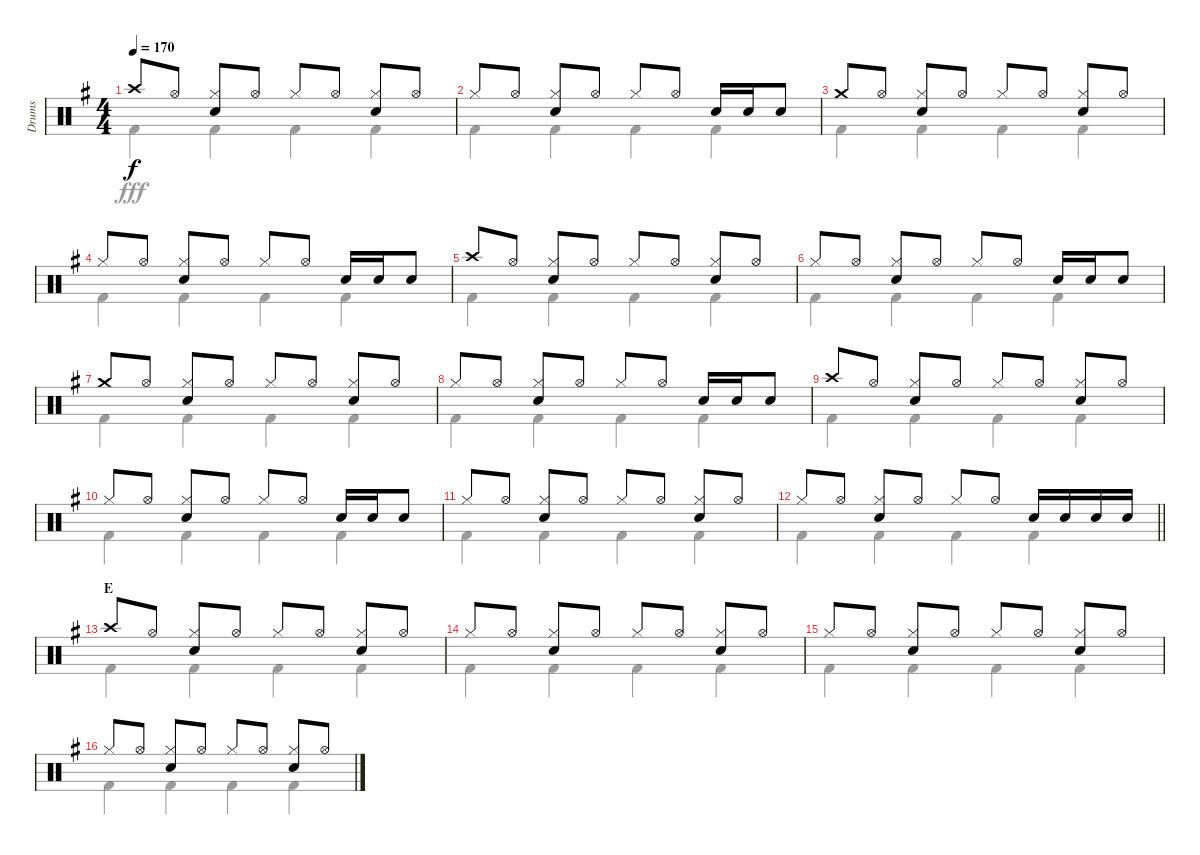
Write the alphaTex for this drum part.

\track ("Drums" "Drums") {instrument percussion}
\staff {score}
\articulation defaults
\voice
\ts (4 4)
\tempo 170
\clef neutral
\ks g "Crash high (hit)".8{dy f} "Hi-Hat (open)".8
("Hi-Hat (closed)" "Snare (hit) 2").8 "Hi-Hat (open)".8 "Hi-Hat (closed)".8 "Hi-Hat (open)".8 ("Hi-Hat (closed)" "Snare (hit) 2").8 "Hi-Hat (open)".8 |
"Hi-Hat (closed)".8 "Hi-Hat (open)".8 ("Hi-Hat (closed)" "Snare (hit) 2").8 "Hi-Hat (open)".8 "Hi-Hat (closed)".8 "Hi-Hat (open)".8 "Snare (hit) 2".16 "Snare (hit) 2".16 "Snare (hit) 2".8 |
"Crash medium (hit)".8 "Hi-Hat (open)".8 ("Hi-Hat (closed)" "Snare (hit) 2").8 "Hi-Hat (open)".8 "Hi-Hat (closed)".8 "Hi-Hat (open)".8 ("Hi-Hat (closed)" "Snare (hit) 2").8 "Hi-Hat (open)".8 |
"Hi-Hat (closed)".8 "Hi-Hat (open)".8 ("Hi-Hat (closed)" "Snare (hit) 2").8 "Hi-Hat (open)".8 "Hi-Hat (closed)".8 "Hi-Hat (open)".8 "Snare (hit) 2".16 "Snare (hit) 2".16 "Snare (hit) 2".8 |
"Crash high (hit)".8 "Hi-Hat (open)".8 ("Hi-Hat (closed)" "Snare (hit) 2").8 "Hi-Hat (open)".8 "Hi-Hat (closed)".8 "Hi-Hat (open)".8 ("Hi-Hat (closed)" "Snare (hit) 2").8 "Hi-Hat (open)".8 |
"Hi-Hat (closed)".8 "Hi-Hat (open)".8 ("Hi-Hat (closed)" "Snare (hit) 2").8 "Hi-Hat (open)".8 "Hi-Hat (closed)".8 "Hi-Hat (open)".8 "Snare (hit) 2".16 "Snare (hit) 2".16 "Snare (hit) 2".8 |
"Crash medium (hit)".8 "Hi-Hat (open)".8 ("Hi-Hat (closed)" "Snare (hit) 2").8 "Hi-Hat (open)".8 "Hi-Hat (closed)".8 "Hi-Hat (open)".8 ("Hi-Hat (closed)" "Snare (hit) 2").8 "Hi-Hat (open)".8 |
"Hi-Hat (closed)".8 "Hi-Hat (open)".8 ("Hi-Hat (closed)" "Snare (hit) 2").8 "Hi-Hat (open)".8 "Hi-Hat (closed)".8 "Hi-Hat (open)".8 "Snare (hit) 2".16 "Snare (hit) 2".16 "Snare (hit) 2".8 |
"Crash high (hit)".8 "Hi-Hat (open)".8 ("Hi-Hat (closed)" "Snare (hit) 2").8 "Hi-Hat (open)".8 "Hi-Hat (closed)".8 "Hi-Hat (open)".8 ("Hi-Hat (closed)" "Snare (hit) 2").8 "Hi-Hat (open)".8 |
"Hi-Hat (closed)".8 "Hi-Hat (open)".8 ("Hi-Hat (closed)" "Snare (hit) 2").8 "Hi-Hat (open)".8 "Hi-Hat (closed)".8 "Hi-Hat (open)".8 "Snare (hit) 2".16 "Snare (hit) 2".16 "Snare (hit) 2".8 |
"Hi-Hat (closed)".8 "Hi-Hat (open)".8 ("Hi-Hat (closed)" "Snare (hit) 2").8 "Hi-Hat (open)".8 "Hi-Hat (closed)".8 "Hi-Hat (open)".8 ("Hi-Hat (closed)" "Snare (hit) 2").8 "Hi-Hat (open)".8 |
\barLineRight lightlight "Hi-Hat (closed)".8 "Hi-Hat (open)".8
("Hi-Hat (closed)" "Snare (hit) 2").8 "Hi-Hat (open)".8 "Hi-Hat (closed)".8 "Hi-Hat (open)".8 "Snare (hit) 2".16 "Snare (hit) 2".16 "Snare (hit) 2".16 "Snare (hit) 2".16 |
\section ("" "E")
"Crash high (hit)".8 "Hi-Hat (open)".8 ("Hi-Hat (closed)" "Snare (hit) 2").8 "Hi-Hat (open)".8 "Hi-Hat (closed)".8 "Hi-Hat (open)".8 ("Hi-Hat (closed)" "Snare (hit) 2").8 "Hi-Hat (open)".8 |
"Hi-Hat (closed)".8 "Hi-Hat (open)".8 ("Hi-Hat (closed)" "Snare (hit) 2").8 "Hi-Hat (open)".8 "Hi-Hat (closed)".8 "Hi-Hat (open)".8 ("Hi-Hat (closed)" "Snare (hit) 2").8 "Hi-Hat (open)".8 |
"Hi-Hat (closed)".8 "Hi-Hat (open)".8 ("Hi-Hat (closed)" "Snare (hit) 2").8 "Hi-Hat (open)".8 "Hi-Hat (closed)".8 "Hi-Hat (open)".8 ("Hi-Hat (closed)" "Snare (hit) 2").8 "Hi-Hat (open)".8 |
"Hi-Hat (closed)".8 "Hi-Hat (open)".8 ("Hi-Hat (closed)" "Snare (hit) 2").8 "Hi-Hat (open)".8 "Hi-Hat (closed)".8 "Hi-Hat (open)".8 ("Hi-Hat (closed)" "Snare (hit) 2").8 "Hi-Hat (open)".8
\voice
\clef neutral
\ottava regular
\simile none
\ks g "Kick (hit) 2".4{dy fff} "Kick (hit) 2".4 "Kick (hit) 2".4 "Kick (hit) 2".4
|
"Kick (hit) 2".4 "Kick (hit) 2".4 "Kick (hit) 2".4 "Kick (hit) 2".4 |
"Kick (hit) 2".4 "Kick (hit) 2".4 "Kick (hit) 2".4 "Kick (hit) 2".4 |
"Kick (hit) 2".4 "Kick (hit) 2".4 "Kick (hit) 2".4 "Kick (hit) 2".4 |
"Kick (hit) 2".4 "Kick (hit) 2".4 "Kick (hit) 2".4 "Kick (hit) 2".4 |
"Kick (hit) 2".4 "Kick (hit) 2".4 "Kick (hit) 2".4 "Kick (hit) 2".4 |
"Kick (hit) 2".4 "Kick (hit) 2".4 "Kick (hit) 2".4 "Kick (hit) 2".4 |
"Kick (hit) 2".4 "Kick (hit) 2".4 "Kick (hit) 2".4 "Kick (hit) 2".4 |
"Kick (hit) 2".4 "Kick (hit) 2".4 "Kick (hit) 2".4 "Kick (hit) 2".4 |
"Kick (hit) 2".4 "Kick (hit) 2".4 "Kick (hit) 2".4 "Kick (hit) 2".4 |
"Kick (hit) 2".4 "Kick (hit) 2".4 "Kick (hit) 2".4 "Kick (hit) 2".4 |
\barLineRight lightlight "Kick (hit) 2".4 "Kick (hit) 2".4 "Kick (hit) 2".4 "Kick (hit) 2".4
|
"Kick (hit) 2".4 "Kick (hit) 2".4 "Kick (hit) 2".4 "Kick (hit) 2".4 |
"Kick (hit) 2".4 "Kick (hit) 2".4 "Kick (hit) 2".4 "Kick (hit) 2".4 |
"Kick (hit) 2".4 "Kick (hit) 2".4 "Kick (hit) 2".4 "Kick (hit) 2".4 |
"Kick (hit) 2".4 "Kick (hit) 2".4 "Kick (hit) 2".4 "Kick (hit) 2".4
